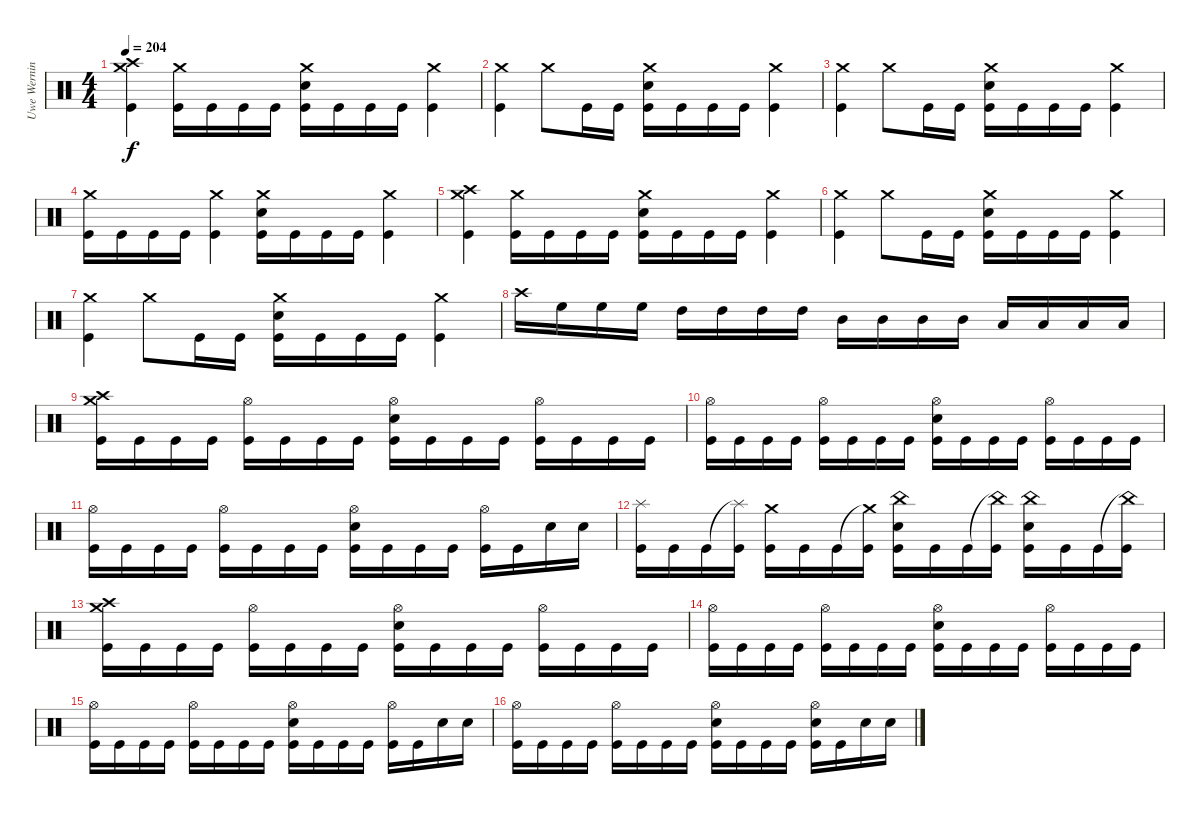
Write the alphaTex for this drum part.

\track ("Uwe Werning" "Uwe Wernin") {instrument percussion}
\staff {score}
\articulation defaults
\ts (4 4)
\tempo 204
\clef neutral
\ks c
("Crash high (hit)" "Crash medium (hit)" "Kick (hit)").4{dy f} ("Crash medium (hit)" "Kick (hit)").16 "Kick (hit)".16 "Kick (hit)".16 "Kick (hit)".16 ("Crash medium (hit)" "Snare (hit) 2" "Kick (hit)").16 "Kick (hit)".16 "Kick (hit)".16 "Kick (hit)".16 ("Crash medium (hit)" "Kick (hit)").4 |
("Crash medium (hit)" "Kick (hit)").4 "Crash medium (hit)".8 "Kick (hit)".16 "Kick (hit)".16 ("Crash medium (hit)" "Snare (hit) 2" "Kick (hit)").16 "Kick (hit)".16 "Kick (hit)".16 "Kick (hit)".16 ("Crash medium (hit)" "Kick (hit)").4 |
("Crash medium (hit)" "Kick (hit)").4 "Crash medium (hit)".8 "Kick (hit)".16 "Kick (hit)".16 ("Crash medium (hit)" "Snare (hit) 2" "Kick (hit)").16 "Kick (hit)".16 "Kick (hit)".16 "Kick (hit)".16 ("Crash medium (hit)" "Kick (hit)").4 |
("Crash medium (hit)" "Kick (hit)").16 "Kick (hit)".16 "Kick (hit)".16 "Kick (hit)".16 ("Crash medium (hit)" "Kick (hit)").4 ("Crash medium (hit)" "Snare (hit) 2" "Kick (hit)").16 "Kick (hit)".16 "Kick (hit)".16 "Kick (hit)".16 ("Crash medium (hit)" "Kick (hit)").4 |
("Crash high (hit)" "Crash medium (hit)" "Kick (hit)").4 ("Crash medium (hit)" "Kick (hit)").16 "Kick (hit)".16 "Kick (hit)".16 "Kick (hit)".16 ("Crash medium (hit)" "Snare (hit) 2" "Kick (hit)").16 "Kick (hit)".16 "Kick (hit)".16 "Kick (hit)".16 ("Crash medium (hit)" "Kick (hit)").4 |
("Crash medium (hit)" "Kick (hit)").4 "Crash medium (hit)".8 "Kick (hit)".16 "Kick (hit)".16 ("Crash medium (hit)" "Snare (hit) 2" "Kick (hit)").16 "Kick (hit)".16 "Kick (hit)".16 "Kick (hit)".16 ("Crash medium (hit)" "Kick (hit)").4 |
("Crash medium (hit)" "Kick (hit)").4 "Crash medium (hit)".8 "Kick (hit)".16 "Kick (hit)".16 ("Crash medium (hit)" "Snare (hit) 2" "Kick (hit)").16 "Kick (hit)".16 "Kick (hit)".16 "Kick (hit)".16 ("Crash medium (hit)" "Kick (hit)").4 |
"Crash high (hit)".16 "High Floor Tom (hit)".16 "High Floor Tom (hit)".16 "High Floor Tom (hit)".16 "High Tom (hit)".16 "High Tom (hit)".16 "High Tom (hit)".16 "High Tom (hit)".16 "Mid Tom (hit)".16 "Mid Tom (hit)".16 "Mid Tom (hit)".16 "Mid Tom (hit)".16 "Low Tom (hit)".16 "Low Tom (hit)".16 "Low Tom (hit)".16 "Low Tom (hit)".16 |
("Crash high (hit)" "Crash medium (hit)" "Kick (hit)").16 "Kick (hit)".16 "Kick (hit)".16 "Kick (hit)".16 ("Hi-Hat (open)" "Kick (hit)").16 "Kick (hit)".16 "Kick (hit)".16 "Kick (hit)".16 ("Hi-Hat (open)" "Snare (hit) 2" "Kick (hit)").16 "Kick (hit)".16 "Kick (hit)".16 "Kick (hit)".16 ("Hi-Hat (open)" "Kick (hit)").16 "Kick (hit)".16 "Kick (hit)".16 "Kick (hit)".16 |
("Hi-Hat (open)" "Kick (hit)").16 "Kick (hit)".16 "Kick (hit)".16 "Kick (hit)".16 ("Hi-Hat (open)" "Kick (hit)").16 "Kick (hit)".16 "Kick (hit)".16 "Kick (hit)".16 ("Hi-Hat (open)" "Snare (hit) 2" "Kick (hit)").16 "Kick (hit)".16 "Kick (hit)".16 "Kick (hit)".16 ("Hi-Hat (open)" "Kick (hit)").16 "Kick (hit)".16 "Kick (hit)".16 "Kick (hit)".16 |
("Hi-Hat (open)" "Kick (hit)").16 "Kick (hit)".16 "Kick (hit)".16 "Kick (hit)".16 ("Hi-Hat (open)" "Kick (hit)").16 "Kick (hit)".16 "Kick (hit)".16 "Kick (hit)".16 ("Hi-Hat (open)" "Snare (hit) 2" "Kick (hit)").16 "Kick (hit)".16 "Kick (hit)".16 "Kick (hit)".16 ("Hi-Hat (open)" "Kick (hit)").16 "Kick (hit)".16 "Snare (hit) 2".16 "Snare (hit) 2".16 |
("Splash (hit)" "Kick (hit)").16 "Kick (hit)".16 "Kick (hit)".16 ("Splash (hit)"{t} "Kick (hit)").16 ("Crash medium (hit)" "Kick (hit)").16 "Kick (hit)".16 "Kick (hit)".16 ("Crash medium (hit)"{t} "Kick (hit)").16 ("China (hit)" "Snare (hit) 2" "Kick (hit)").16 "Kick (hit)".16 "Kick (hit)".16 ("China (hit)"{t} "Kick (hit)").16 ("China (hit)" "Snare (hit) 2" "Kick (hit)").16 "Kick (hit)".16 "Kick (hit)".16 ("China (hit)"{t} "Kick (hit)").16 |
("Crash high (hit)" "Crash medium (hit)" "Kick (hit)").16 "Kick (hit)".16 "Kick (hit)".16 "Kick (hit)".16 ("Hi-Hat (open)" "Kick (hit)").16 "Kick (hit)".16 "Kick (hit)".16 "Kick (hit)".16 ("Hi-Hat (open)" "Snare (hit) 2" "Kick (hit)").16 "Kick (hit)".16 "Kick (hit)".16 "Kick (hit)".16 ("Hi-Hat (open)" "Kick (hit)").16 "Kick (hit)".16 "Kick (hit)".16 "Kick (hit)".16 |
("Hi-Hat (open)" "Kick (hit)").16 "Kick (hit)".16 "Kick (hit)".16 "Kick (hit)".16 ("Hi-Hat (open)" "Kick (hit)").16 "Kick (hit)".16 "Kick (hit)".16 "Kick (hit)".16 ("Hi-Hat (open)" "Snare (hit) 2" "Kick (hit)").16 "Kick (hit)".16 "Kick (hit)".16 "Kick (hit)".16 ("Hi-Hat (open)" "Kick (hit)").16 "Kick (hit)".16 "Kick (hit)".16 "Kick (hit)".16 |
("Hi-Hat (open)" "Kick (hit)").16 "Kick (hit)".16 "Kick (hit)".16 "Kick (hit)".16 ("Hi-Hat (open)" "Kick (hit)").16 "Kick (hit)".16 "Kick (hit)".16 "Kick (hit)".16 ("Hi-Hat (open)" "Snare (hit) 2" "Kick (hit)").16 "Kick (hit)".16 "Kick (hit)".16 "Kick (hit)".16 ("Hi-Hat (open)" "Kick (hit)").16 "Kick (hit)".16 "Snare (hit) 2".16 "Snare (hit) 2".16 |
("Hi-Hat (open)" "Kick (hit)").16 "Kick (hit)".16 "Kick (hit)".16 "Kick (hit)".16 ("Hi-Hat (open)" "Kick (hit)").16 "Kick (hit)".16 "Kick (hit)".16 "Kick (hit)".16 ("Hi-Hat (open)" "Snare (hit) 2" "Kick (hit)").16 "Kick (hit)".16 "Kick (hit)".16 "Kick (hit)".16 ("Hi-Hat (open)" "Snare (hit) 2" "Kick (hit)").16 "Kick (hit)".16 "Snare (hit) 2".16 "Snare (hit) 2".16
